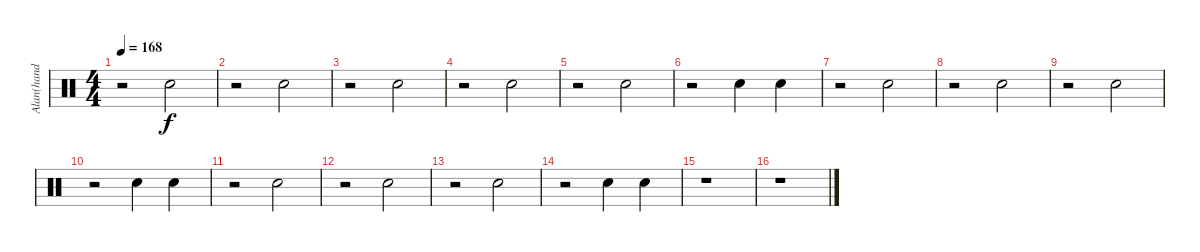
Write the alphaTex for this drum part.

\track ("Alan(hand clap)" "Alan(hand ") {instrument percussion}
\staff {score}
\articulation defaults
\ts (4 4)
\tempo 168
\clef neutral
\ks c
r.2{dy f} "Hand Clap (hit)".2 |
r.2 "Hand Clap (hit)".2 |
r.2 "Hand Clap (hit)".2 |
r.2 "Hand Clap (hit)".2 |
r.2 "Hand Clap (hit)".2 |
r.2 "Hand Clap (hit)".4 "Hand Clap (hit)".4 |
r.2 "Hand Clap (hit)".2 |
r.2 "Hand Clap (hit)".2 |
r.2 "Hand Clap (hit)".2 |
r.2 "Hand Clap (hit)".4 "Hand Clap (hit)".4 |
r.2 "Hand Clap (hit)".2 |
r.2 "Hand Clap (hit)".2 |
r.2 "Hand Clap (hit)".2 |
r.2 "Hand Clap (hit)".4 "Hand Clap (hit)".4 |
r.1 |
r.1
